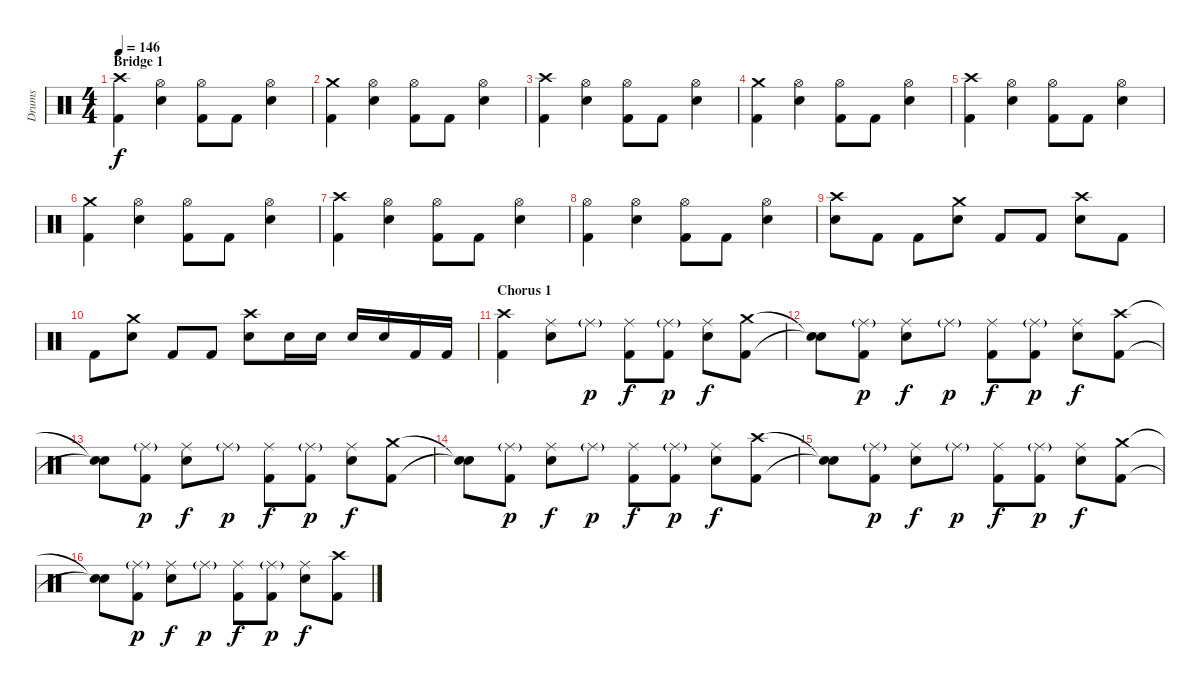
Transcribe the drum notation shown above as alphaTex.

\track ("Drums" "Drums") {instrument percussion}
\staff {score}
\articulation defaults
\ts (4 4)
\section ("" "Bridge 1")
\tempo 146
\clef neutral
\ks c
("Crash high (hit)" "Kick (hit) 2").4{dy f} ("Hi-Hat (open)" "Snare (hit) 2").4 ("Hi-Hat (open)" "Kick (hit) 2").8 "Kick (hit) 2".8 ("Hi-Hat (open)" "Snare (hit) 2").4 |
("Crash medium (hit)" "Kick (hit) 2").4 ("Hi-Hat (open)" "Snare (hit) 2").4 ("Hi-Hat (open)" "Kick (hit) 2").8 "Kick (hit) 2".8 ("Hi-Hat (open)" "Snare (hit) 2").4 |
("Crash high (hit)" "Kick (hit) 2").4 ("Hi-Hat (open)" "Snare (hit) 2").4 ("Hi-Hat (open)" "Kick (hit) 2").8 "Kick (hit) 2".8 ("Hi-Hat (open)" "Snare (hit) 2").4 |
("Crash medium (hit)" "Kick (hit) 2").4 ("Hi-Hat (open)" "Snare (hit) 2").4 ("Hi-Hat (open)" "Kick (hit) 2").8 "Kick (hit) 2".8 ("Hi-Hat (open)" "Snare (hit) 2").4 |
("Crash high (hit)" "Kick (hit) 2").4 ("Hi-Hat (open)" "Snare (hit) 2").4 ("Hi-Hat (open)" "Kick (hit) 2").8 "Kick (hit) 2".8 ("Hi-Hat (open)" "Snare (hit) 2").4 |
("Crash medium (hit)" "Kick (hit) 2").4 ("Hi-Hat (open)" "Snare (hit) 2").4 ("Hi-Hat (open)" "Kick (hit) 2").8 "Kick (hit) 2".8 ("Hi-Hat (open)" "Snare (hit) 2").4 |
("Crash high (hit)" "Kick (hit) 2").4 ("Hi-Hat (open)" "Snare (hit) 2").4 ("Hi-Hat (open)" "Kick (hit) 2").8 "Kick (hit) 2".8 ("Hi-Hat (open)" "Snare (hit) 2").4 |
("Hi-Hat (open)" "Kick (hit) 2").4 ("Hi-Hat (open)" "Snare (hit) 2").4 ("Hi-Hat (open)" "Kick (hit) 2").8 "Kick (hit) 2".8 ("Hi-Hat (open)" "Snare (hit) 2").4 |
("Crash high (hit)" "Snare (hit) 2").8 "Kick (hit) 2".8 "Kick (hit) 2".8 ("Crash medium (hit)" "Snare (hit) 2").8 "Kick (hit) 2".8 "Kick (hit) 2".8 ("Crash high (hit)" "Snare (hit) 2").8 "Kick (hit) 2".8 |
"Kick (hit) 2".8 ("Crash medium (hit)" "Snare (hit) 2").8 "Kick (hit) 2".8 "Kick (hit) 2".8 ("Crash high (hit)" "Snare (hit) 2").8 "Snare (hit) 2".16 "Snare (hit) 2".16 "Snare (hit) 2".16 "Snare (hit) 2".16 "Kick (hit) 2".16 "Kick (hit) 2".16 |
\section ("" "Chorus 1")
("Crash high (hit)" "Kick (hit) 2").4 ("Ride (middle)" "Snare (hit) 2").8 "Ride (middle)"{g}.8{dy p} ("Ride (middle)" "Kick (hit) 2").8{dy f} ("Ride (middle)"{g} "Kick (hit) 2").8{dy p} ("Ride (middle)" "Snare (hit) 2").8{dy f} ("Crash medium (hit)" "Kick (hit) 2").8 |
("Snare (hit)"{t} "Snare (hit)"{t}).8 ("Ride (middle)"{g} "Kick (hit) 2").8{dy p} ("Ride (middle)" "Snare (hit) 2").8{dy f} "Ride (middle)"{g}.8{dy p} ("Ride (middle)" "Kick (hit) 2").8{dy f} ("Ride (middle)"{g} "Kick (hit) 2").8{dy p} ("Ride (middle)" "Snare (hit) 2").8{dy f} ("Crash high (hit)" "Kick (hit) 2").8 |
("Snare (hit)"{t} "Snare (hit)"{t}).8 ("Ride (middle)"{g} "Kick (hit) 2").8{dy p} ("Ride (middle)" "Snare (hit) 2").8{dy f} "Ride (middle)"{g}.8{dy p} ("Ride (middle)" "Kick (hit) 2").8{dy f} ("Ride (middle)"{g} "Kick (hit) 2").8{dy p} ("Ride (middle)" "Snare (hit) 2").8{dy f} ("Crash medium (hit)" "Kick (hit) 2").8 |
("Snare (hit)"{t} "Snare (hit)"{t}).8 ("Ride (middle)"{g} "Kick (hit) 2").8{dy p} ("Ride (middle)" "Snare (hit) 2").8{dy f} "Ride (middle)"{g}.8{dy p} ("Ride (middle)" "Kick (hit) 2").8{dy f} ("Ride (middle)"{g} "Kick (hit) 2").8{dy p} ("Ride (middle)" "Snare (hit) 2").8{dy f} ("Crash high (hit)" "Kick (hit) 2").8 |
("Snare (hit)"{t} "Snare (hit)"{t}).8 ("Ride (middle)"{g} "Kick (hit) 2").8{dy p} ("Ride (middle)" "Snare (hit) 2").8{dy f} "Ride (middle)"{g}.8{dy p} ("Ride (middle)" "Kick (hit) 2").8{dy f} ("Ride (middle)"{g} "Kick (hit) 2").8{dy p} ("Ride (middle)" "Snare (hit) 2").8{dy f} ("Crash medium (hit)" "Kick (hit) 2").8 |
("Snare (hit)"{t} "Snare (hit)"{t}).8 ("Ride (middle)"{g} "Kick (hit) 2").8{dy p} ("Ride (middle)" "Snare (hit) 2").8{dy f} "Ride (middle)"{g}.8{dy p} ("Ride (middle)" "Kick (hit) 2").8{dy f} ("Ride (middle)"{g} "Kick (hit) 2").8{dy p} ("Ride (middle)" "Snare (hit) 2").8{dy f} ("Crash high (hit)" "Kick (hit) 2").8
